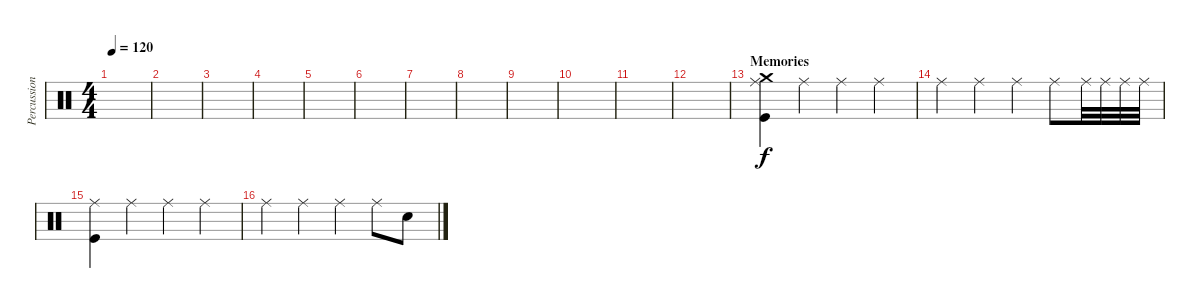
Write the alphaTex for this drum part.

\track ("Percussion" "Percussion") {instrument percussion}
\staff {score}
\articulation defaults
\ts (4 4)
\tempo 120
\clef neutral
\ks c
|
|
|
|
|
|
|
|
|
|
|
|
\section ("" "Memories")
("Crash medium (hit)" "Ride (middle)" "Kick (hit)").4 "Ride (middle)".4 "Ride (middle)".4 "Ride (middle)".4 |
"Ride (middle)".4 "Ride (middle)".4 "Ride (middle)".4 "Ride (middle)".8 "Ride (middle)".32 "Ride (middle)".32 "Ride (middle)".32 "Ride (middle)".32 |
("Ride (middle)" "Kick (hit)").4 "Ride (middle)".4 "Ride (middle)".4 "Ride (middle)".4 |
"Ride (middle)".4 "Ride (middle)".4 "Ride (middle)".4 "Ride (middle)".8 "Electric Snare (hit)".8
